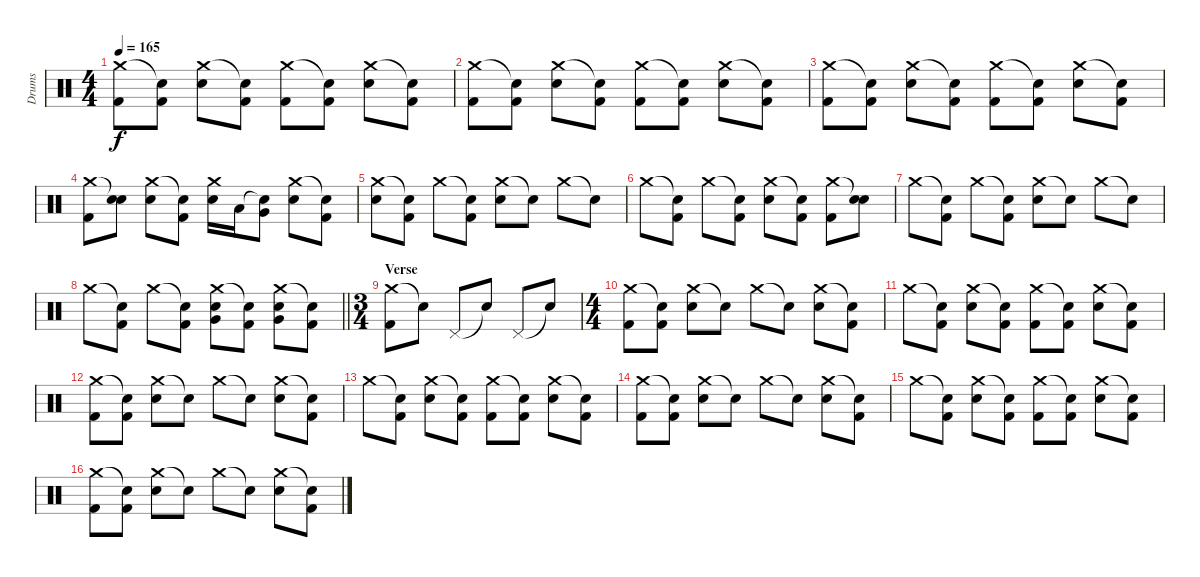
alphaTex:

\track ("Drums" "Drums") {instrument percussion}
\staff {score}
\articulation defaults
\ts (4 4)
\tempo 165
\clef neutral
\ks c
("Crash medium (hit)" "Kick (hit) 2").8{dy f} ("Snare (hit)"{t} "Kick (hit) 2").8 ("Crash medium (hit)" "Electric Snare (hit)").8 ("Snare (hit)"{t} "Kick (hit) 2").8 ("Crash medium (hit)" "Kick (hit) 2").8 ("Snare (hit)"{t} "Kick (hit) 2").8 ("Crash medium (hit)" "Electric Snare (hit)").8 ("Snare (hit)"{t} "Kick (hit) 2").8 |
("Crash medium (hit)" "Kick (hit) 2").8 ("Snare (hit)"{t} "Kick (hit) 2").8 ("Crash medium (hit)" "Electric Snare (hit)").8 ("Snare (hit)"{t} "Kick (hit) 2").8 ("Crash medium (hit)" "Kick (hit) 2").8 ("Snare (hit)"{t} "Kick (hit) 2").8 ("Crash medium (hit)" "Electric Snare (hit)").8 ("Snare (hit)"{t} "Kick (hit) 2").8 |
("Crash medium (hit)" "Kick (hit) 2").8 ("Snare (hit)"{t} "Kick (hit) 2").8 ("Crash medium (hit)" "Electric Snare (hit)").8 ("Snare (hit)"{t} "Kick (hit) 2").8 ("Crash medium (hit)" "Kick (hit) 2").8 ("Snare (hit)"{t} "Kick (hit) 2").8 ("Crash medium (hit)" "Electric Snare (hit)").8 ("Snare (hit)"{t} "Kick (hit) 2").8 |
("Crash medium (hit)" "Kick (hit) 2").8 ("Snare (hit)"{t} "Electric Snare (hit)").8 ("Crash medium (hit)" "Electric Snare (hit)").8 ("Snare (hit)"{t} "Kick (hit) 2").8 ("Crash medium (hit)" "Electric Snare (hit)").16 "Low Tom (hit)".16 ("Snare (hit)"{t} "Very Low Tom (hit)").8 ("Crash medium (hit)" "Electric Snare (hit)").8 ("Snare (hit)"{t} "Kick (hit) 2").8 |
("Crash medium (hit)" "Electric Snare (hit)").8 ("Snare (hit)"{t} "Kick (hit) 2").8 "Crash medium (hit)".8 ("Snare (hit)"{t} "Kick (hit) 2").8 ("Crash medium (hit)" "Electric Snare (hit)").8 "Snare (hit)"{t}.8 "Crash medium (hit)".8 "Snare (hit)"{t}.8 |
"Crash medium (hit)".8 ("Snare (hit)"{t} "Kick (hit) 2").8 "Crash medium (hit)".8 ("Snare (hit)"{t} "Kick (hit) 2").8 ("Crash medium (hit)" "Electric Snare (hit)").8 ("Snare (hit)"{t} "Kick (hit) 2").8 ("Crash medium (hit)" "Kick (hit) 2").8 ("Snare (hit)"{t} "Electric Snare (hit)").8 |
"Crash medium (hit)".8 ("Snare (hit)"{t} "Kick (hit) 2").8 "Crash medium (hit)".8 ("Snare (hit)"{t} "Kick (hit) 2").8 ("Crash medium (hit)" "Electric Snare (hit)").8 "Snare (hit)"{t}.8 "Crash medium (hit)".8 "Snare (hit)"{t}.8 |
\barLineRight lightlight "Crash medium (hit)".8
("Snare (hit)"{t} "Kick (hit) 2").8 "Crash medium (hit)".8 ("Snare (hit)"{t} "Kick (hit) 2").8 ("Crash medium (hit)" "Very Low Tom (hit)" "Electric Snare (hit)").8 ("Snare (hit)"{t} "Kick (hit) 2").8 ("Crash medium (hit)" "Very Low Tom (hit)" "Electric Snare (hit)").8 ("Snare (hit)"{t} "Kick (hit) 2").8 |
\ts (3 4)
\section ("" "Verse")
("Crash medium (hit)" "Kick (hit) 2").8 "Snare (hit)"{t}.8 "Pedal Hi-Hat (hit)".8 "Snare (hit)"{t}.8 "Pedal Hi-Hat (hit)".8 "Snare (hit)"{t}.8 |
\ts (4 4)
("Crash medium (hit)" "Kick (hit) 2").8 ("Snare (hit)"{t} "Kick (hit) 2").8 ("Crash medium (hit)" "Electric Snare (hit)").8 "Snare (hit)"{t}.8 "Crash medium (hit)".8 "Snare (hit)"{t}.8 ("Crash medium (hit)" "Electric Snare (hit)").8 ("Snare (hit)"{t} "Kick (hit) 2").8 |
"Crash medium (hit)".8 ("Snare (hit)"{t} "Kick (hit) 2").8 ("Crash medium (hit)" "Electric Snare (hit)").8 ("Snare (hit)"{t} "Kick (hit) 2").8 ("Crash medium (hit)" "Kick (hit) 2").8 ("Snare (hit)"{t} "Kick (hit) 2").8 ("Crash medium (hit)" "Electric Snare (hit)").8 ("Snare (hit)"{t} "Kick (hit) 2").8 |
("Crash medium (hit)" "Kick (hit) 2").8 ("Snare (hit)"{t} "Kick (hit) 2").8 ("Crash medium (hit)" "Electric Snare (hit)").8 "Snare (hit)"{t}.8 "Crash medium (hit)".8 "Snare (hit)"{t}.8 ("Crash medium (hit)" "Electric Snare (hit)").8 ("Snare (hit)"{t} "Kick (hit) 2").8 |
"Crash medium (hit)".8 ("Snare (hit)"{t} "Kick (hit) 2").8 ("Crash medium (hit)" "Electric Snare (hit)").8 ("Snare (hit)"{t} "Kick (hit) 2").8 ("Crash medium (hit)" "Kick (hit) 2").8 ("Snare (hit)"{t} "Kick (hit) 2").8 ("Crash medium (hit)" "Electric Snare (hit)").8 ("Snare (hit)"{t} "Kick (hit) 2").8 |
("Crash medium (hit)" "Kick (hit) 2").8 ("Snare (hit)"{t} "Kick (hit) 2").8 ("Crash medium (hit)" "Electric Snare (hit)").8 "Snare (hit)"{t}.8 "Crash medium (hit)".8 "Snare (hit)"{t}.8 ("Crash medium (hit)" "Electric Snare (hit)").8 ("Snare (hit)"{t} "Kick (hit) 2").8 |
"Crash medium (hit)".8 ("Snare (hit)"{t} "Kick (hit) 2").8 ("Crash medium (hit)" "Electric Snare (hit)").8 ("Snare (hit)"{t} "Kick (hit) 2").8 ("Crash medium (hit)" "Kick (hit) 2").8 ("Snare (hit)"{t} "Kick (hit) 2").8 ("Crash medium (hit)" "Electric Snare (hit)").8 ("Snare (hit)"{t} "Kick (hit) 2").8 |
("Crash medium (hit)" "Kick (hit) 2").8 ("Snare (hit)"{t} "Kick (hit) 2").8 ("Crash medium (hit)" "Electric Snare (hit)").8 "Snare (hit)"{t}.8 "Crash medium (hit)".8 "Snare (hit)"{t}.8 ("Crash medium (hit)" "Electric Snare (hit)").8 ("Snare (hit)"{t} "Kick (hit) 2").8
